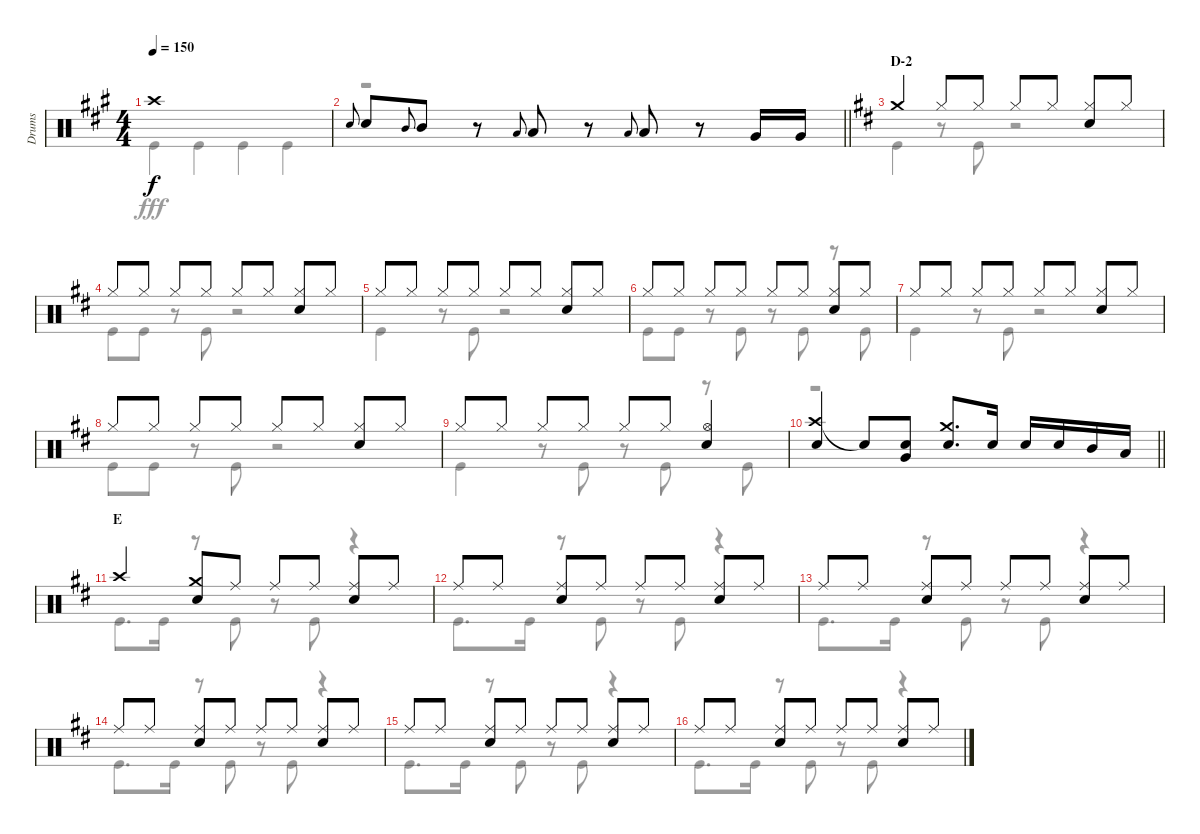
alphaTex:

\track ("Drums" "Drums") {instrument percussion}
\staff {score}
\articulation defaults
\voice
\ts (4 4)
\tempo 150
\clef neutral
\ks a "Crash high (hit)".1{dy f}
|
\barLineRight lightlight "Snare (hit) 2".8{gr onbeat} "Snare (hit) 2".8 "Mid Tom (hit)".8{gr onbeat} "Mid Tom (hit)".8
r.8 "Low Tom (hit)".8{gr onbeat} "Low Tom (hit)".8 r.8 "Low Tom (hit)".8{gr onbeat} "Low Tom (hit)".8 r.8 "Very Low Tom (hit)".16 "Very Low Tom (hit)".16 |
\section ("" "D-2")
\ks d "Crash medium (hit)".4 "Hi-Hat (closed)".8 "Hi-Hat (closed)".8 "Hi-Hat (closed)".8 "Hi-Hat (closed)".8
("Hi-Hat (closed)" "Snare (hit) 2").8 "Hi-Hat (closed)".8 |
"Hi-Hat (closed)".8 "Hi-Hat (closed)".8 "Hi-Hat (closed)".8 "Hi-Hat (closed)".8 "Hi-Hat (closed)".8 "Hi-Hat (closed)".8 ("Hi-Hat (closed)" "Snare (hit) 2").8 "Hi-Hat (closed)".8 |
"Hi-Hat (closed)".8 "Hi-Hat (closed)".8 "Hi-Hat (closed)".8 "Hi-Hat (closed)".8 "Hi-Hat (closed)".8 "Hi-Hat (closed)".8 ("Hi-Hat (closed)" "Snare (hit) 2").8 "Hi-Hat (closed)".8 |
"Hi-Hat (closed)".8 "Hi-Hat (closed)".8 "Hi-Hat (closed)".8 "Hi-Hat (closed)".8 "Hi-Hat (closed)".8 "Hi-Hat (closed)".8 ("Hi-Hat (closed)" "Snare (hit) 2").8 "Hi-Hat (closed)".8 |
"Hi-Hat (closed)".8 "Hi-Hat (closed)".8 "Hi-Hat (closed)".8 "Hi-Hat (closed)".8 "Hi-Hat (closed)".8 "Hi-Hat (closed)".8 ("Hi-Hat (closed)" "Snare (hit) 2").8 "Hi-Hat (closed)".8 |
"Hi-Hat (closed)".8 "Hi-Hat (closed)".8 "Hi-Hat (closed)".8 "Hi-Hat (closed)".8 "Hi-Hat (closed)".8 "Hi-Hat (closed)".8 ("Hi-Hat (closed)" "Snare (hit) 2").8 "Hi-Hat (closed)".8 |
"Hi-Hat (closed)".8 "Hi-Hat (closed)".8 "Hi-Hat (closed)".8 "Hi-Hat (closed)".8 "Hi-Hat (closed)".8 "Hi-Hat (closed)".8 ("Hi-Hat (open)" "Snare (hit) 2").4 |
\barLineRight lightlight
("Crash high (hit)" "Snare (hit) 2").4 "Snare (hit)"{t}.8 ("Snare (hit) 2" "Very Low Tom (hit)").8 ("Crash medium (hit)" "Snare (hit) 2").8{d} "Snare (hit) 2".16 "Snare (hit) 2".16 "Snare (hit) 2".16 "Mid Tom (hit)".16 "Low Tom (hit)".16 |
\section ("" "E")
"Crash high (hit)".4 ("Crash medium (hit)" "Snare (hit) 2").8 "Ride (middle)".8 "Ride (middle)".8 "Ride (middle)".8 ("Ride (middle)" "Snare (hit) 2").8 "Ride (middle)".8 |
"Ride (middle)".8 "Ride (middle)".8 ("Ride (middle)" "Snare (hit) 2").8 "Ride (middle)".8 "Ride (middle)".8 "Ride (middle)".8 ("Ride (middle)" "Snare (hit) 2").8 "Ride (middle)".8 |
"Ride (middle)".8 "Ride (middle)".8 ("Ride (middle)" "Snare (hit) 2").8 "Ride (middle)".8 "Ride (middle)".8 "Ride (middle)".8 ("Ride (middle)" "Snare (hit) 2").8 "Ride (middle)".8 |
"Ride (middle)".8 "Ride (middle)".8 ("Ride (middle)" "Snare (hit) 2").8 "Ride (middle)".8 "Ride (middle)".8 "Ride (middle)".8 ("Ride (middle)" "Snare (hit) 2").8 "Ride (middle)".8 |
"Ride (middle)".8 "Ride (middle)".8 ("Ride (middle)" "Snare (hit) 2").8 "Ride (middle)".8 "Ride (middle)".8 "Ride (middle)".8 ("Ride (middle)" "Snare (hit) 2").8 "Ride (middle)".8 |
"Ride (middle)".8 "Ride (middle)".8 ("Ride (middle)" "Snare (hit) 2").8 "Ride (middle)".8 "Ride (middle)".8 "Ride (middle)".8 ("Ride (middle)" "Snare (hit) 2").8 "Ride (middle)".8
\voice
\clef neutral
\ottava regular
\simile none
\ks a "Kick (hit)".4{dy fff} "Kick (hit)".4 "Kick (hit)".4 "Kick (hit)".4
|
\barLineRight lightlight
r.1 |
\ks d "Kick (hit)".4
r.8 "Kick (hit)".8 r.2 |
"Kick (hit)".8 "Kick (hit)".8 r.8 "Kick (hit)".8 r.2 |
"Kick (hit)".4 r.8 "Kick (hit)".8 r.2 |
"Kick (hit)".8 "Kick (hit)".8 r.8 "Kick (hit)".8 r.8 "Kick (hit)".8 r.8 "Kick (hit)".8 |
"Kick (hit)".4 r.8 "Kick (hit)".8 r.2 |
"Kick (hit)".8 "Kick (hit)".8 r.8 "Kick (hit)".8 r.2 |
"Kick (hit)".4 r.8 "Kick (hit)".8 r.8 "Kick (hit)".8 r.8 "Kick (hit)".8 |
\barLineRight lightlight
r.1 |
"Kick (hit)".8{d} "Kick (hit)".16 r.8 "Kick (hit)".8 r.8 "Kick (hit)".8 r.4 |
"Kick (hit)".8{d} "Kick (hit)".16 r.8 "Kick (hit)".8 r.8 "Kick (hit)".8 r.4 |
"Kick (hit)".8{d} "Kick (hit)".16 r.8 "Kick (hit)".8 r.8 "Kick (hit)".8 r.4 |
"Kick (hit)".8{d} "Kick (hit)".16 r.8 "Kick (hit)".8 r.8 "Kick (hit)".8 r.4 |
"Kick (hit)".8{d} "Kick (hit)".16 r.8 "Kick (hit)".8 r.8 "Kick (hit)".8 r.4 |
"Kick (hit)".8{d} "Kick (hit)".16 r.8 "Kick (hit)".8 r.8 "Kick (hit)".8 r.4
